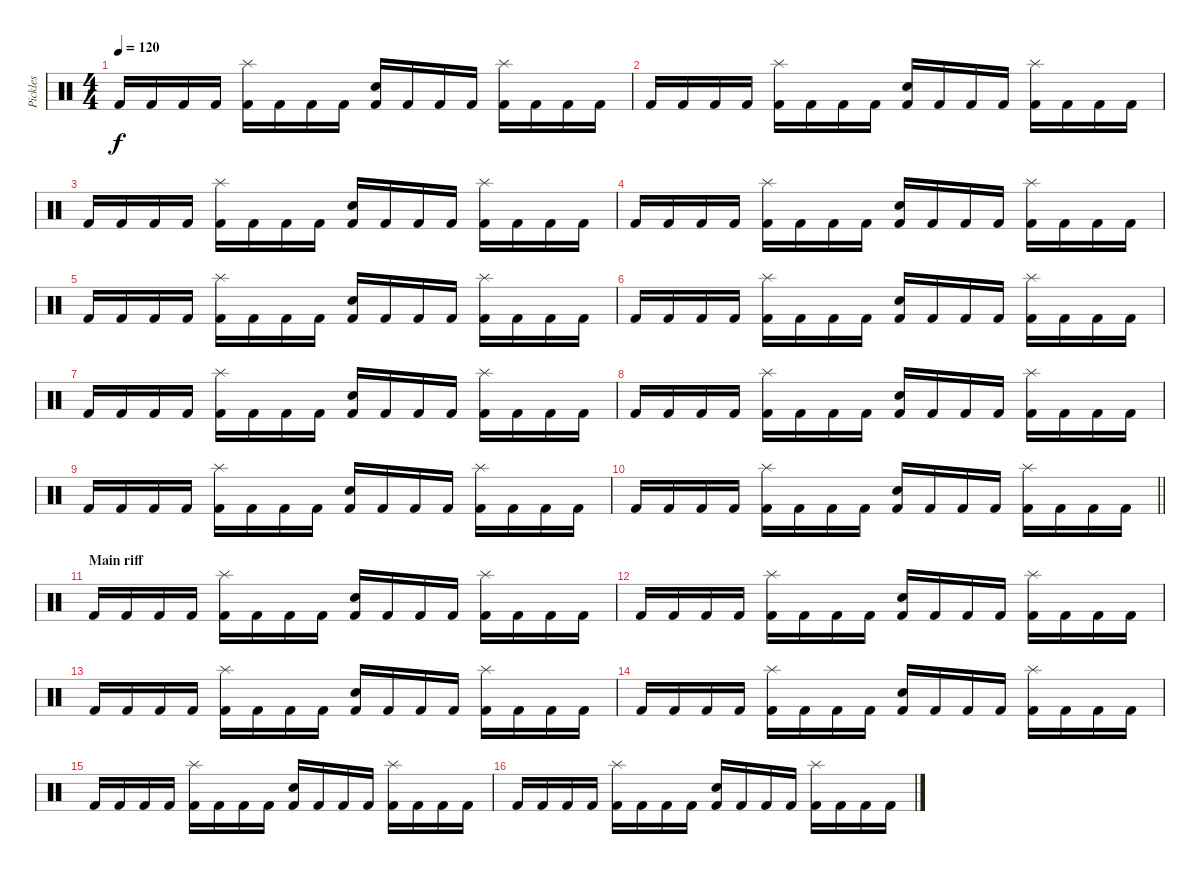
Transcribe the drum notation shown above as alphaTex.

\track ("Pickles" "Pickles") {instrument percussion}
\staff {score}
\articulation defaults
\ts (4 4)
\tempo 120
\clef neutral
\ks c "Kick (hit) 2".16{dy f} "Kick (hit) 2".16 "Kick (hit) 2".16 "Kick (hit) 2".16
("Splash (hit)" "Kick (hit) 2").16 "Kick (hit) 2".16 "Kick (hit) 2".16 "Kick (hit) 2".16 ("Electric Snare (hit)" "Kick (hit) 2").16 "Kick (hit) 2".16 "Kick (hit) 2".16 "Kick (hit) 2".16 ("Splash (hit)" "Kick (hit) 2").16 "Kick (hit) 2".16 "Kick (hit) 2".16 "Kick (hit) 2".16 |
"Kick (hit) 2".16 "Kick (hit) 2".16 "Kick (hit) 2".16 "Kick (hit) 2".16 ("Splash (hit)" "Kick (hit) 2").16 "Kick (hit) 2".16 "Kick (hit) 2".16 "Kick (hit) 2".16 ("Electric Snare (hit)" "Kick (hit) 2").16 "Kick (hit) 2".16 "Kick (hit) 2".16 "Kick (hit) 2".16 ("Splash (hit)" "Kick (hit) 2").16 "Kick (hit) 2".16 "Kick (hit) 2".16 "Kick (hit) 2".16 |
"Kick (hit) 2".16 "Kick (hit) 2".16 "Kick (hit) 2".16 "Kick (hit) 2".16 ("Splash (hit)" "Kick (hit) 2").16 "Kick (hit) 2".16 "Kick (hit) 2".16 "Kick (hit) 2".16 ("Electric Snare (hit)" "Kick (hit) 2").16 "Kick (hit) 2".16 "Kick (hit) 2".16 "Kick (hit) 2".16 ("Splash (hit)" "Kick (hit) 2").16 "Kick (hit) 2".16 "Kick (hit) 2".16 "Kick (hit) 2".16 |
"Kick (hit) 2".16 "Kick (hit) 2".16 "Kick (hit) 2".16 "Kick (hit) 2".16 ("Splash (hit)" "Kick (hit) 2").16 "Kick (hit) 2".16 "Kick (hit) 2".16 "Kick (hit) 2".16 ("Electric Snare (hit)" "Kick (hit) 2").16 "Kick (hit) 2".16 "Kick (hit) 2".16 "Kick (hit) 2".16 ("Splash (hit)" "Kick (hit) 2").16 "Kick (hit) 2".16 "Kick (hit) 2".16 "Kick (hit) 2".16 |
"Kick (hit) 2".16 "Kick (hit) 2".16 "Kick (hit) 2".16 "Kick (hit) 2".16 ("Splash (hit)" "Kick (hit) 2").16 "Kick (hit) 2".16 "Kick (hit) 2".16 "Kick (hit) 2".16 ("Electric Snare (hit)" "Kick (hit) 2").16 "Kick (hit) 2".16 "Kick (hit) 2".16 "Kick (hit) 2".16 ("Splash (hit)" "Kick (hit) 2").16 "Kick (hit) 2".16 "Kick (hit) 2".16 "Kick (hit) 2".16 |
"Kick (hit) 2".16 "Kick (hit) 2".16 "Kick (hit) 2".16 "Kick (hit) 2".16 ("Splash (hit)" "Kick (hit) 2").16 "Kick (hit) 2".16 "Kick (hit) 2".16 "Kick (hit) 2".16 ("Electric Snare (hit)" "Kick (hit) 2").16 "Kick (hit) 2".16 "Kick (hit) 2".16 "Kick (hit) 2".16 ("Splash (hit)" "Kick (hit) 2").16 "Kick (hit) 2".16 "Kick (hit) 2".16 "Kick (hit) 2".16 |
"Kick (hit) 2".16 "Kick (hit) 2".16 "Kick (hit) 2".16 "Kick (hit) 2".16 ("Splash (hit)" "Kick (hit) 2").16 "Kick (hit) 2".16 "Kick (hit) 2".16 "Kick (hit) 2".16 ("Electric Snare (hit)" "Kick (hit) 2").16 "Kick (hit) 2".16 "Kick (hit) 2".16 "Kick (hit) 2".16 ("Splash (hit)" "Kick (hit) 2").16 "Kick (hit) 2".16 "Kick (hit) 2".16 "Kick (hit) 2".16 |
"Kick (hit) 2".16 "Kick (hit) 2".16 "Kick (hit) 2".16 "Kick (hit) 2".16 ("Splash (hit)" "Kick (hit) 2").16 "Kick (hit) 2".16 "Kick (hit) 2".16 "Kick (hit) 2".16 ("Electric Snare (hit)" "Kick (hit) 2").16 "Kick (hit) 2".16 "Kick (hit) 2".16 "Kick (hit) 2".16 ("Splash (hit)" "Kick (hit) 2").16 "Kick (hit) 2".16 "Kick (hit) 2".16 "Kick (hit) 2".16 |
"Kick (hit) 2".16 "Kick (hit) 2".16 "Kick (hit) 2".16 "Kick (hit) 2".16 ("Splash (hit)" "Kick (hit) 2").16 "Kick (hit) 2".16 "Kick (hit) 2".16 "Kick (hit) 2".16 ("Electric Snare (hit)" "Kick (hit) 2").16 "Kick (hit) 2".16 "Kick (hit) 2".16 "Kick (hit) 2".16 ("Splash (hit)" "Kick (hit) 2").16 "Kick (hit) 2".16 "Kick (hit) 2".16 "Kick (hit) 2".16 |
\barLineRight lightlight "Kick (hit) 2".16 "Kick (hit) 2".16 "Kick (hit) 2".16 "Kick (hit) 2".16
("Splash (hit)" "Kick (hit) 2").16 "Kick (hit) 2".16 "Kick (hit) 2".16 "Kick (hit) 2".16 ("Electric Snare (hit)" "Kick (hit) 2").16 "Kick (hit) 2".16 "Kick (hit) 2".16 "Kick (hit) 2".16 ("Splash (hit)" "Kick (hit) 2").16 "Kick (hit) 2".16 "Kick (hit) 2".16 "Kick (hit) 2".16 |
\section ("" "Main riff")
"Kick (hit) 2".16 "Kick (hit) 2".16 "Kick (hit) 2".16 "Kick (hit) 2".16 ("Splash (hit)" "Kick (hit) 2").16 "Kick (hit) 2".16 "Kick (hit) 2".16 "Kick (hit) 2".16 ("Electric Snare (hit)" "Kick (hit) 2").16 "Kick (hit) 2".16 "Kick (hit) 2".16 "Kick (hit) 2".16 ("Splash (hit)" "Kick (hit) 2").16 "Kick (hit) 2".16 "Kick (hit) 2".16 "Kick (hit) 2".16 |
"Kick (hit) 2".16 "Kick (hit) 2".16 "Kick (hit) 2".16 "Kick (hit) 2".16 ("Splash (hit)" "Kick (hit) 2").16 "Kick (hit) 2".16 "Kick (hit) 2".16 "Kick (hit) 2".16 ("Electric Snare (hit)" "Kick (hit) 2").16 "Kick (hit) 2".16 "Kick (hit) 2".16 "Kick (hit) 2".16 ("Splash (hit)" "Kick (hit) 2").16 "Kick (hit) 2".16 "Kick (hit) 2".16 "Kick (hit) 2".16 |
"Kick (hit) 2".16 "Kick (hit) 2".16 "Kick (hit) 2".16 "Kick (hit) 2".16 ("Splash (hit)" "Kick (hit) 2").16 "Kick (hit) 2".16 "Kick (hit) 2".16 "Kick (hit) 2".16 ("Electric Snare (hit)" "Kick (hit) 2").16 "Kick (hit) 2".16 "Kick (hit) 2".16 "Kick (hit) 2".16 ("Splash (hit)" "Kick (hit) 2").16 "Kick (hit) 2".16 "Kick (hit) 2".16 "Kick (hit) 2".16 |
"Kick (hit) 2".16 "Kick (hit) 2".16 "Kick (hit) 2".16 "Kick (hit) 2".16 ("Splash (hit)" "Kick (hit) 2").16 "Kick (hit) 2".16 "Kick (hit) 2".16 "Kick (hit) 2".16 ("Electric Snare (hit)" "Kick (hit) 2").16 "Kick (hit) 2".16 "Kick (hit) 2".16 "Kick (hit) 2".16 ("Splash (hit)" "Kick (hit) 2").16 "Kick (hit) 2".16 "Kick (hit) 2".16 "Kick (hit) 2".16 |
"Kick (hit) 2".16 "Kick (hit) 2".16 "Kick (hit) 2".16 "Kick (hit) 2".16 ("Splash (hit)" "Kick (hit) 2").16 "Kick (hit) 2".16 "Kick (hit) 2".16 "Kick (hit) 2".16 ("Electric Snare (hit)" "Kick (hit) 2").16 "Kick (hit) 2".16 "Kick (hit) 2".16 "Kick (hit) 2".16 ("Splash (hit)" "Kick (hit) 2").16 "Kick (hit) 2".16 "Kick (hit) 2".16 "Kick (hit) 2".16 |
"Kick (hit) 2".16 "Kick (hit) 2".16 "Kick (hit) 2".16 "Kick (hit) 2".16 ("Splash (hit)" "Kick (hit) 2").16 "Kick (hit) 2".16 "Kick (hit) 2".16 "Kick (hit) 2".16 ("Electric Snare (hit)" "Kick (hit) 2").16 "Kick (hit) 2".16 "Kick (hit) 2".16 "Kick (hit) 2".16 ("Splash (hit)" "Kick (hit) 2").16 "Kick (hit) 2".16 "Kick (hit) 2".16 "Kick (hit) 2".16
